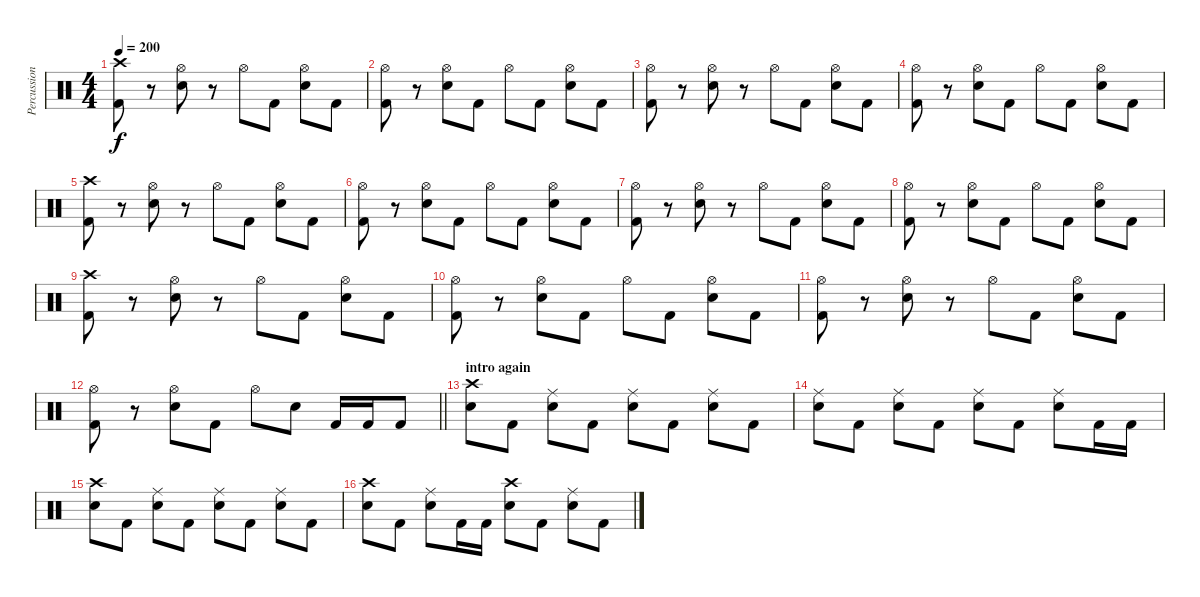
\track ("Percussion" "Percussion") {instrument percussion}
\staff {score}
\articulation defaults
\ts (4 4)
\tempo 200
\clef neutral
\ks c
("Crash high (hit)" "Kick (hit) 2").8{dy f} r.8 ("Hi-Hat (open)" "Snare (hit) 2").8 r.8 "Hi-Hat (open)".8 "Kick (hit) 2".8 ("Hi-Hat (open)" "Snare (hit) 2").8 "Kick (hit) 2".8 |
("Hi-Hat (open)" "Kick (hit) 2").8 r.8 ("Hi-Hat (open)" "Snare (hit) 2").8 "Kick (hit) 2".8 "Hi-Hat (open)".8 "Kick (hit) 2".8 ("Hi-Hat (open)" "Snare (hit) 2").8 "Kick (hit) 2".8 |
("Hi-Hat (open)" "Kick (hit) 2").8 r.8 ("Hi-Hat (open)" "Snare (hit) 2").8 r.8 "Hi-Hat (open)".8 "Kick (hit) 2".8 ("Hi-Hat (open)" "Snare (hit) 2").8 "Kick (hit) 2".8 |
("Hi-Hat (open)" "Kick (hit) 2").8 r.8 ("Hi-Hat (open)" "Snare (hit) 2").8 "Kick (hit) 2".8 "Hi-Hat (open)".8 "Kick (hit) 2".8 ("Hi-Hat (open)" "Snare (hit) 2").8 "Kick (hit) 2".8 |
("Crash high (hit)" "Kick (hit) 2").8 r.8 ("Hi-Hat (open)" "Snare (hit) 2").8 r.8 "Hi-Hat (open)".8 "Kick (hit) 2".8 ("Hi-Hat (open)" "Snare (hit) 2").8 "Kick (hit) 2".8 |
("Hi-Hat (open)" "Kick (hit) 2").8 r.8 ("Hi-Hat (open)" "Snare (hit) 2").8 "Kick (hit) 2".8 "Hi-Hat (open)".8 "Kick (hit) 2".8 ("Hi-Hat (open)" "Snare (hit) 2").8 "Kick (hit) 2".8 |
("Hi-Hat (open)" "Kick (hit) 2").8 r.8 ("Hi-Hat (open)" "Snare (hit) 2").8 r.8 "Hi-Hat (open)".8 "Kick (hit) 2".8 ("Hi-Hat (open)" "Snare (hit) 2").8 "Kick (hit) 2".8 |
("Hi-Hat (open)" "Kick (hit) 2").8 r.8 ("Hi-Hat (open)" "Snare (hit) 2").8 "Kick (hit) 2".8 "Hi-Hat (open)".8 "Kick (hit) 2".8 ("Hi-Hat (open)" "Snare (hit) 2").8 "Kick (hit) 2".8 |
("Crash high (hit)" "Kick (hit) 2").8 r.8 ("Hi-Hat (open)" "Snare (hit) 2").8 r.8 "Hi-Hat (open)".8 "Kick (hit) 2".8 ("Hi-Hat (open)" "Snare (hit) 2").8 "Kick (hit) 2".8 |
("Hi-Hat (open)" "Kick (hit) 2").8 r.8 ("Hi-Hat (open)" "Snare (hit) 2").8 "Kick (hit) 2".8 "Hi-Hat (open)".8 "Kick (hit) 2".8 ("Hi-Hat (open)" "Snare (hit) 2").8 "Kick (hit) 2".8 |
("Hi-Hat (open)" "Kick (hit) 2").8 r.8 ("Hi-Hat (open)" "Snare (hit) 2").8 r.8 "Hi-Hat (open)".8 "Kick (hit) 2".8 ("Hi-Hat (open)" "Snare (hit) 2").8 "Kick (hit) 2".8 |
\barLineRight lightlight
("Hi-Hat (open)" "Kick (hit) 2").8 r.8 ("Hi-Hat (open)" "Snare (hit) 2").8 "Kick (hit) 2".8 "Hi-Hat (open)".8 "Snare (hit) 2".8 "Kick (hit) 2".16 "Kick (hit) 2".16 "Kick (hit) 2".8 |
\section ("" "intro again")
("Crash high (hit)" "Snare (hit) 2").8 "Kick (hit) 2".8 ("Ride (middle)" "Snare (hit) 2").8 "Kick (hit) 2".8 ("Ride (middle)" "Snare (hit) 2").8 "Kick (hit) 2".8 ("Ride (middle)" "Snare (hit) 2").8 "Kick (hit) 2".8 |
("Ride (middle)" "Snare (hit) 2").8 "Kick (hit) 2".8 ("Ride (middle)" "Snare (hit) 2").8 "Kick (hit) 2".8 ("Ride (middle)" "Snare (hit) 2").8 "Kick (hit) 2".8 ("Ride (middle)" "Snare (hit) 2").8 "Kick (hit) 2".16 "Kick (hit) 2".16 |
("Crash high (hit)" "Snare (hit) 2").8 "Kick (hit) 2".8 ("Ride (middle)" "Snare (hit) 2").8 "Kick (hit) 2".8 ("Ride (middle)" "Snare (hit) 2").8 "Kick (hit) 2".8 ("Ride (middle)" "Snare (hit) 2").8 "Kick (hit) 2".8 |
("Crash high (hit)" "Snare (hit) 2").8 "Kick (hit) 2".8 ("Ride (middle)" "Snare (hit) 2").8 "Kick (hit) 2".16 "Kick (hit) 2".16 ("Crash high (hit)" "Snare (hit) 2").8 "Kick (hit) 2".8 ("Ride (middle)" "Snare (hit) 2").8 "Kick (hit) 2".8
